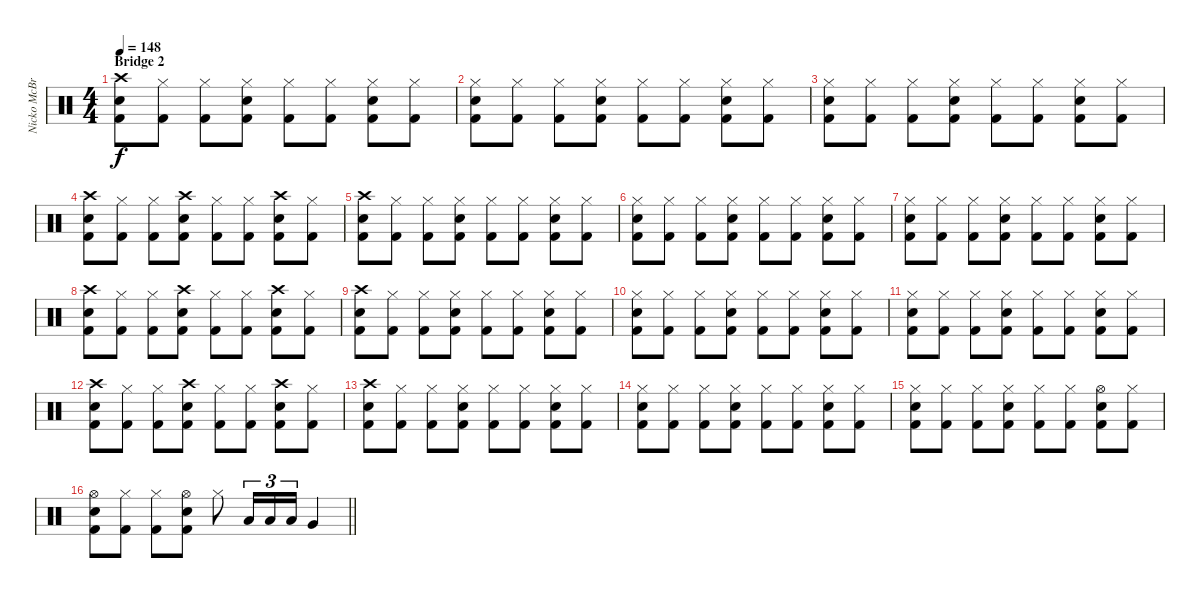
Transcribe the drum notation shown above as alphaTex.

\track ("Nicko McBrain" "Nicko McBr") {instrument percussion}
\staff {score}
\articulation defaults
\ts (4 4)
\section ("" "Bridge 2")
\tempo 148
\clef neutral
\ks c
("Crash high (hit)" "Electric Snare (hit)" "Kick (hit) 2").8{dy f} ("Hi-Hat (closed)" "Kick (hit) 2").8 ("Hi-Hat (closed)" "Kick (hit) 2").8 ("Hi-Hat (closed)" "Electric Snare (hit)" "Kick (hit) 2").8 ("Hi-Hat (closed)" "Kick (hit) 2").8 ("Hi-Hat (closed)" "Kick (hit) 2").8 ("Hi-Hat (closed)" "Electric Snare (hit)" "Kick (hit) 2").8 ("Hi-Hat (closed)" "Kick (hit) 2").8 |
("Hi-Hat (closed)" "Electric Snare (hit)" "Kick (hit) 2").8 ("Hi-Hat (closed)" "Kick (hit) 2").8 ("Hi-Hat (closed)" "Kick (hit) 2").8 ("Hi-Hat (closed)" "Electric Snare (hit)" "Kick (hit) 2").8 ("Hi-Hat (closed)" "Kick (hit) 2").8 ("Hi-Hat (closed)" "Kick (hit) 2").8 ("Hi-Hat (closed)" "Electric Snare (hit)" "Kick (hit) 2").8 ("Hi-Hat (closed)" "Kick (hit) 2").8 |
("Hi-Hat (closed)" "Electric Snare (hit)" "Kick (hit) 2").8 ("Hi-Hat (closed)" "Kick (hit) 2").8 ("Hi-Hat (closed)" "Kick (hit) 2").8 ("Hi-Hat (closed)" "Electric Snare (hit)" "Kick (hit) 2").8 ("Hi-Hat (closed)" "Kick (hit) 2").8 ("Hi-Hat (closed)" "Kick (hit) 2").8 ("Hi-Hat (closed)" "Electric Snare (hit)" "Kick (hit) 2").8 ("Hi-Hat (closed)" "Kick (hit) 2").8 |
("Crash high (hit)" "Electric Snare (hit)" "Kick (hit) 2").8 ("Hi-Hat (closed)" "Kick (hit) 2").8 ("Hi-Hat (closed)" "Kick (hit) 2").8 ("Crash high (hit)" "Electric Snare (hit)" "Kick (hit) 2").8 ("Hi-Hat (closed)" "Kick (hit) 2").8 ("Hi-Hat (closed)" "Kick (hit) 2").8 ("Crash high (hit)" "Electric Snare (hit)" "Kick (hit) 2").8 ("Hi-Hat (closed)" "Kick (hit) 2").8 |
("Crash high (hit)" "Electric Snare (hit)" "Kick (hit) 2").8 ("Hi-Hat (closed)" "Kick (hit) 2").8 ("Hi-Hat (closed)" "Kick (hit) 2").8 ("Hi-Hat (closed)" "Electric Snare (hit)" "Kick (hit) 2").8 ("Hi-Hat (closed)" "Kick (hit) 2").8 ("Hi-Hat (closed)" "Kick (hit) 2").8 ("Hi-Hat (closed)" "Electric Snare (hit)" "Kick (hit) 2").8 ("Hi-Hat (closed)" "Kick (hit) 2").8 |
("Hi-Hat (closed)" "Electric Snare (hit)" "Kick (hit) 2").8 ("Hi-Hat (closed)" "Kick (hit) 2").8 ("Hi-Hat (closed)" "Kick (hit) 2").8 ("Hi-Hat (closed)" "Electric Snare (hit)" "Kick (hit) 2").8 ("Hi-Hat (closed)" "Kick (hit) 2").8 ("Hi-Hat (closed)" "Kick (hit) 2").8 ("Hi-Hat (closed)" "Electric Snare (hit)" "Kick (hit) 2").8 ("Hi-Hat (closed)" "Kick (hit) 2").8 |
("Hi-Hat (closed)" "Electric Snare (hit)" "Kick (hit) 2").8 ("Hi-Hat (closed)" "Kick (hit) 2").8 ("Hi-Hat (closed)" "Kick (hit) 2").8 ("Hi-Hat (closed)" "Electric Snare (hit)" "Kick (hit) 2").8 ("Hi-Hat (closed)" "Kick (hit) 2").8 ("Hi-Hat (closed)" "Kick (hit) 2").8 ("Hi-Hat (closed)" "Electric Snare (hit)" "Kick (hit) 2").8 ("Hi-Hat (closed)" "Kick (hit) 2").8 |
("Crash high (hit)" "Electric Snare (hit)" "Kick (hit) 2").8 ("Hi-Hat (closed)" "Kick (hit) 2").8 ("Hi-Hat (closed)" "Kick (hit) 2").8 ("Crash high (hit)" "Electric Snare (hit)" "Kick (hit) 2").8 ("Hi-Hat (closed)" "Kick (hit) 2").8 ("Hi-Hat (closed)" "Kick (hit) 2").8 ("Crash high (hit)" "Electric Snare (hit)" "Kick (hit) 2").8 ("Hi-Hat (closed)" "Kick (hit) 2").8 |
("Crash high (hit)" "Electric Snare (hit)" "Kick (hit) 2").8 ("Hi-Hat (closed)" "Kick (hit) 2").8 ("Hi-Hat (closed)" "Kick (hit) 2").8 ("Hi-Hat (closed)" "Electric Snare (hit)" "Kick (hit) 2").8 ("Hi-Hat (closed)" "Kick (hit) 2").8 ("Hi-Hat (closed)" "Kick (hit) 2").8 ("Hi-Hat (closed)" "Electric Snare (hit)" "Kick (hit) 2").8 ("Hi-Hat (closed)" "Kick (hit) 2").8 |
("Hi-Hat (closed)" "Electric Snare (hit)" "Kick (hit) 2").8 ("Hi-Hat (closed)" "Kick (hit) 2").8 ("Hi-Hat (closed)" "Kick (hit) 2").8 ("Hi-Hat (closed)" "Electric Snare (hit)" "Kick (hit) 2").8 ("Hi-Hat (closed)" "Kick (hit) 2").8 ("Hi-Hat (closed)" "Kick (hit) 2").8 ("Hi-Hat (closed)" "Electric Snare (hit)" "Kick (hit) 2").8 ("Hi-Hat (closed)" "Kick (hit) 2").8 |
("Hi-Hat (closed)" "Electric Snare (hit)" "Kick (hit) 2").8 ("Hi-Hat (closed)" "Kick (hit) 2").8 ("Hi-Hat (closed)" "Kick (hit) 2").8 ("Hi-Hat (closed)" "Electric Snare (hit)" "Kick (hit) 2").8 ("Hi-Hat (closed)" "Kick (hit) 2").8 ("Hi-Hat (closed)" "Kick (hit) 2").8 ("Hi-Hat (closed)" "Electric Snare (hit)" "Kick (hit) 2").8 ("Hi-Hat (closed)" "Kick (hit) 2").8 |
("Crash high (hit)" "Electric Snare (hit)" "Kick (hit) 2").8 ("Hi-Hat (closed)" "Kick (hit) 2").8 ("Hi-Hat (closed)" "Kick (hit) 2").8 ("Crash high (hit)" "Electric Snare (hit)" "Kick (hit) 2").8 ("Hi-Hat (closed)" "Kick (hit) 2").8 ("Hi-Hat (closed)" "Kick (hit) 2").8 ("Crash high (hit)" "Electric Snare (hit)" "Kick (hit) 2").8 ("Hi-Hat (closed)" "Kick (hit) 2").8 |
("Crash high (hit)" "Electric Snare (hit)" "Kick (hit) 2").8 ("Hi-Hat (closed)" "Kick (hit) 2").8 ("Hi-Hat (closed)" "Kick (hit) 2").8 ("Hi-Hat (closed)" "Electric Snare (hit)" "Kick (hit) 2").8 ("Hi-Hat (closed)" "Kick (hit) 2").8 ("Hi-Hat (closed)" "Kick (hit) 2").8 ("Hi-Hat (closed)" "Electric Snare (hit)" "Kick (hit) 2").8 ("Hi-Hat (closed)" "Kick (hit) 2").8 |
("Hi-Hat (closed)" "Electric Snare (hit)" "Kick (hit) 2").8 ("Hi-Hat (closed)" "Kick (hit) 2").8 ("Hi-Hat (closed)" "Kick (hit) 2").8 ("Hi-Hat (closed)" "Electric Snare (hit)" "Kick (hit) 2").8 ("Hi-Hat (closed)" "Kick (hit) 2").8 ("Hi-Hat (closed)" "Kick (hit) 2").8 ("Hi-Hat (closed)" "Electric Snare (hit)" "Kick (hit) 2").8 ("Hi-Hat (closed)" "Kick (hit) 2").8 |
("Hi-Hat (closed)" "Electric Snare (hit)" "Kick (hit) 2").8 ("Hi-Hat (closed)" "Kick (hit) 2").8 ("Hi-Hat (closed)" "Kick (hit) 2").8 ("Hi-Hat (closed)" "Electric Snare (hit)" "Kick (hit) 2").8 ("Hi-Hat (closed)" "Kick (hit) 2").8 ("Hi-Hat (closed)" "Kick (hit) 2").8 ("Hi-Hat (open)" "Electric Snare (hit)" "Kick (hit) 2").8 ("Hi-Hat (closed)" "Kick (hit) 2").8 |
\barLineRight lightlight
("Hi-Hat (open)" "Electric Snare (hit)" "Kick (hit) 2").8 ("Hi-Hat (closed)" "Kick (hit) 2").8 ("Hi-Hat (closed)" "Kick (hit) 2").8 ("Hi-Hat (open)" "Electric Snare (hit)" "Kick (hit) 2").8 "Hi-Hat (closed)".8 "Low Tom (hit)".16{tu (3 2)} "Low Tom (hit)".16{tu (3 2)} "Low Tom (hit)".16{tu (3 2)} "Very Low Tom (hit)".4
